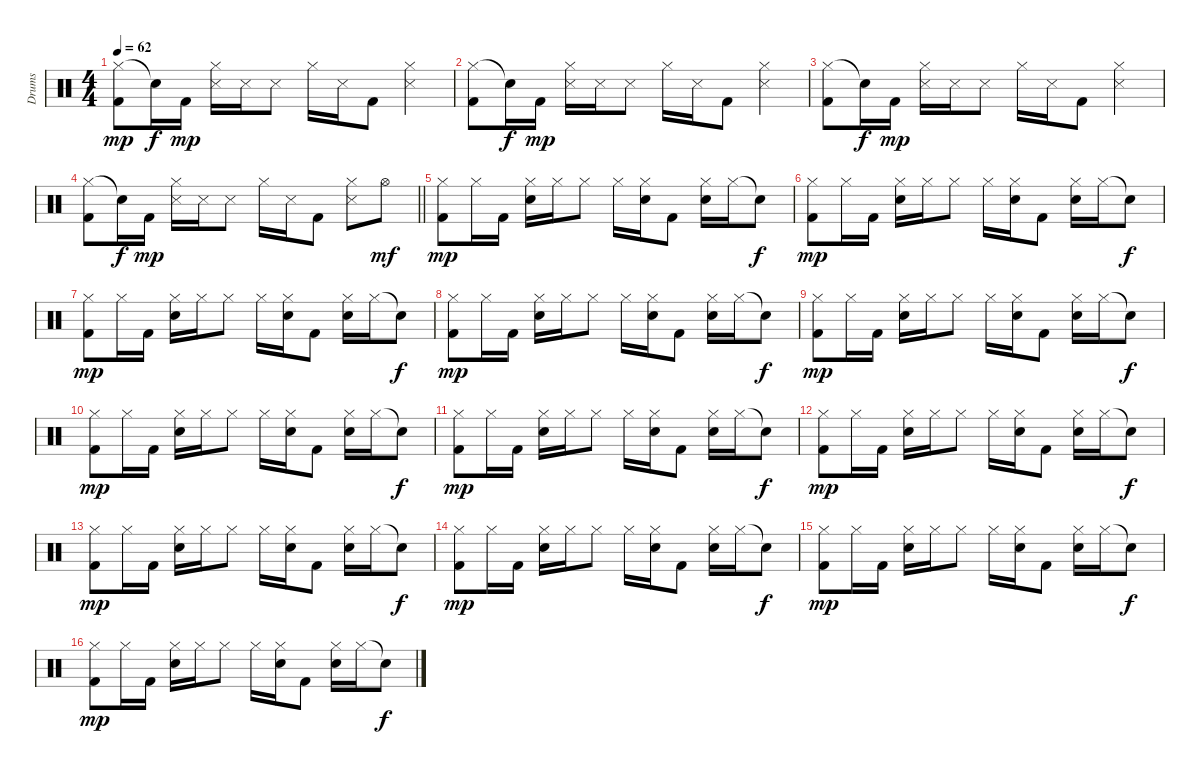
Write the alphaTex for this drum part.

\track ("Drums" "Drums") {instrument percussion}
\staff {score}
\articulation defaults
\ts (4 4)
\tempo 62
\clef neutral
\ks c
("Hi-Hat (closed)" "Kick (hit) 2").8{dy mp} "Snare (hit)"{t}.16{dy f} "Kick (hit) 2".16{dy mp} ("Hi-Hat (closed)" "Snare (side stick) 3").16 "Snare (side stick) 3".16 "Snare (side stick) 3".8 "Hi-Hat (closed)".16 "Snare (side stick) 3".16 "Kick (hit) 2".8 ("Hi-Hat (closed)" "Snare (side stick) 3").4 |
("Hi-Hat (closed)" "Kick (hit) 2").8 "Snare (hit)"{t}.16{dy f} "Kick (hit) 2".16{dy mp} ("Hi-Hat (closed)" "Snare (side stick) 3").16 "Snare (side stick) 3".16 "Snare (side stick) 3".8 "Hi-Hat (closed)".16 "Snare (side stick) 3".16 "Kick (hit) 2".8 ("Hi-Hat (closed)" "Snare (side stick) 3").4 |
("Hi-Hat (closed)" "Kick (hit) 2").8 "Snare (hit)"{t}.16{dy f} "Kick (hit) 2".16{dy mp} ("Hi-Hat (closed)" "Snare (side stick) 3").16 "Snare (side stick) 3".16 "Snare (side stick) 3".8 "Hi-Hat (closed)".16 "Snare (side stick) 3".16 "Kick (hit) 2".8 ("Hi-Hat (closed)" "Snare (side stick) 3").4 |
\barLineRight lightlight
("Hi-Hat (closed)" "Kick (hit) 2").8 "Snare (hit)"{t}.16{dy f} "Kick (hit) 2".16{dy mp} ("Hi-Hat (closed)" "Snare (side stick) 3").16 "Snare (side stick) 3".16 "Snare (side stick) 3".8 "Hi-Hat (closed)".16 "Snare (side stick) 3".16 "Kick (hit) 2".8 ("Hi-Hat (closed)" "Snare (side stick) 3").8 "Hi-Hat (open)".8{dy mf} |
("Hi-Hat (closed)" "Kick (hit) 2").8{dy mp} "Hi-Hat (closed)".16 "Kick (hit) 2".16 ("Hi-Hat (closed)" "Snare (hit) 2").16 "Hi-Hat (closed)".16 "Hi-Hat (closed)".8 "Hi-Hat (closed)".16 ("Hi-Hat (closed)" "Snare (hit) 2").16 "Kick (hit) 2".8 ("Hi-Hat (closed)" "Snare (hit) 2").16 "Hi-Hat (closed)".16 "Snare (hit)"{t}.8{dy f} |
("Hi-Hat (closed)" "Kick (hit) 2").8{dy mp} "Hi-Hat (closed)".16 "Kick (hit) 2".16 ("Hi-Hat (closed)" "Snare (hit) 2").16 "Hi-Hat (closed)".16 "Hi-Hat (closed)".8 "Hi-Hat (closed)".16 ("Hi-Hat (closed)" "Snare (hit) 2").16 "Kick (hit) 2".8 ("Hi-Hat (closed)" "Snare (hit) 2").16 "Hi-Hat (closed)".16 "Snare (hit)"{t}.8{dy f} |
("Hi-Hat (closed)" "Kick (hit) 2").8{dy mp} "Hi-Hat (closed)".16 "Kick (hit) 2".16 ("Hi-Hat (closed)" "Snare (hit) 2").16 "Hi-Hat (closed)".16 "Hi-Hat (closed)".8 "Hi-Hat (closed)".16 ("Hi-Hat (closed)" "Snare (hit) 2").16 "Kick (hit) 2".8 ("Hi-Hat (closed)" "Snare (hit) 2").16 "Hi-Hat (closed)".16 "Snare (hit)"{t}.8{dy f} |
("Hi-Hat (closed)" "Kick (hit) 2").8{dy mp} "Hi-Hat (closed)".16 "Kick (hit) 2".16 ("Hi-Hat (closed)" "Snare (hit) 2").16 "Hi-Hat (closed)".16 "Hi-Hat (closed)".8 "Hi-Hat (closed)".16 ("Hi-Hat (closed)" "Snare (hit) 2").16 "Kick (hit) 2".8 ("Hi-Hat (closed)" "Snare (hit) 2").16 "Hi-Hat (closed)".16 "Snare (hit)"{t}.8{dy f} |
("Hi-Hat (closed)" "Kick (hit) 2").8{dy mp} "Hi-Hat (closed)".16 "Kick (hit) 2".16 ("Hi-Hat (closed)" "Snare (hit) 2").16 "Hi-Hat (closed)".16 "Hi-Hat (closed)".8 "Hi-Hat (closed)".16 ("Hi-Hat (closed)" "Snare (hit) 2").16 "Kick (hit) 2".8 ("Hi-Hat (closed)" "Snare (hit) 2").16 "Hi-Hat (closed)".16 "Snare (hit)"{t}.8{dy f} |
("Hi-Hat (closed)" "Kick (hit) 2").8{dy mp} "Hi-Hat (closed)".16 "Kick (hit) 2".16 ("Hi-Hat (closed)" "Snare (hit) 2").16 "Hi-Hat (closed)".16 "Hi-Hat (closed)".8 "Hi-Hat (closed)".16 ("Hi-Hat (closed)" "Snare (hit) 2").16 "Kick (hit) 2".8 ("Hi-Hat (closed)" "Snare (hit) 2").16 "Hi-Hat (closed)".16 "Snare (hit)"{t}.8{dy f} |
("Hi-Hat (closed)" "Kick (hit) 2").8{dy mp} "Hi-Hat (closed)".16 "Kick (hit) 2".16 ("Hi-Hat (closed)" "Snare (hit) 2").16 "Hi-Hat (closed)".16 "Hi-Hat (closed)".8 "Hi-Hat (closed)".16 ("Hi-Hat (closed)" "Snare (hit) 2").16 "Kick (hit) 2".8 ("Hi-Hat (closed)" "Snare (hit) 2").16 "Hi-Hat (closed)".16 "Snare (hit)"{t}.8{dy f} |
("Hi-Hat (closed)" "Kick (hit) 2").8{dy mp} "Hi-Hat (closed)".16 "Kick (hit) 2".16 ("Hi-Hat (closed)" "Snare (hit) 2").16 "Hi-Hat (closed)".16 "Hi-Hat (closed)".8 "Hi-Hat (closed)".16 ("Hi-Hat (closed)" "Snare (hit) 2").16 "Kick (hit) 2".8 ("Hi-Hat (closed)" "Snare (hit) 2").16 "Hi-Hat (closed)".16 "Snare (hit)"{t}.8{dy f} |
("Hi-Hat (closed)" "Kick (hit) 2").8{dy mp} "Hi-Hat (closed)".16 "Kick (hit) 2".16 ("Hi-Hat (closed)" "Snare (hit) 2").16 "Hi-Hat (closed)".16 "Hi-Hat (closed)".8 "Hi-Hat (closed)".16 ("Hi-Hat (closed)" "Snare (hit) 2").16 "Kick (hit) 2".8 ("Hi-Hat (closed)" "Snare (hit) 2").16 "Hi-Hat (closed)".16 "Snare (hit)"{t}.8{dy f} |
("Hi-Hat (closed)" "Kick (hit) 2").8{dy mp} "Hi-Hat (closed)".16 "Kick (hit) 2".16 ("Hi-Hat (closed)" "Snare (hit) 2").16 "Hi-Hat (closed)".16 "Hi-Hat (closed)".8 "Hi-Hat (closed)".16 ("Hi-Hat (closed)" "Snare (hit) 2").16 "Kick (hit) 2".8 ("Hi-Hat (closed)" "Snare (hit) 2").16 "Hi-Hat (closed)".16 "Snare (hit)"{t}.8{dy f} |
("Hi-Hat (closed)" "Kick (hit) 2").8{dy mp} "Hi-Hat (closed)".16 "Kick (hit) 2".16 ("Hi-Hat (closed)" "Snare (hit) 2").16 "Hi-Hat (closed)".16 "Hi-Hat (closed)".8 "Hi-Hat (closed)".16 ("Hi-Hat (closed)" "Snare (hit) 2").16 "Kick (hit) 2".8 ("Hi-Hat (closed)" "Snare (hit) 2").16 "Hi-Hat (closed)".16 "Snare (hit)"{t}.8{dy f} |
("Hi-Hat (closed)" "Kick (hit) 2").8{dy mp} "Hi-Hat (closed)".16 "Kick (hit) 2".16 ("Hi-Hat (closed)" "Snare (hit) 2").16 "Hi-Hat (closed)".16 "Hi-Hat (closed)".8 "Hi-Hat (closed)".16 ("Hi-Hat (closed)" "Snare (hit) 2").16 "Kick (hit) 2".8 ("Hi-Hat (closed)" "Snare (hit) 2").16 "Hi-Hat (closed)".16 "Snare (hit)"{t}.8{dy f}
